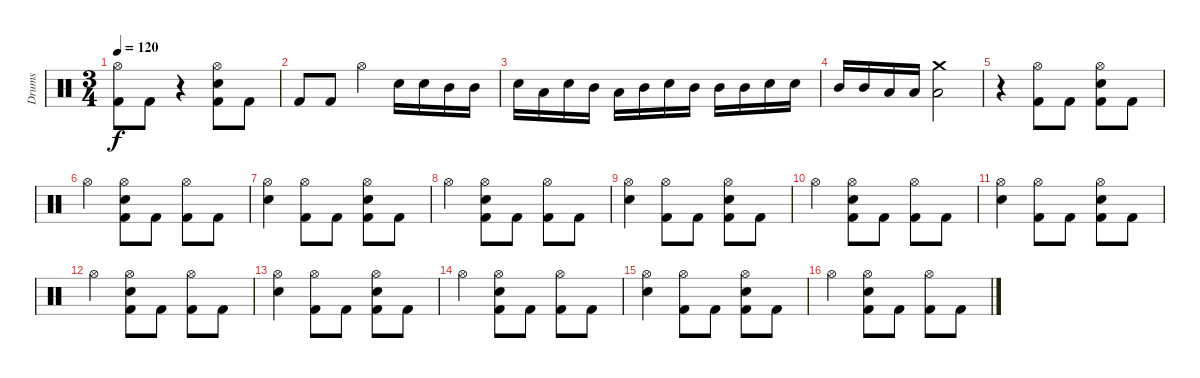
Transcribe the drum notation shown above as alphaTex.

\track ("Drums" "Drums") {instrument percussion}
\staff {score}
\articulation defaults
\ts (3 4)
\tempo 120
\clef neutral
\ks c
("Hi-Hat (open)" "Kick (hit) 2").8{dy f} "Kick (hit) 2".8 r.4 ("Electric Snare (hit)" "Hi-Hat (open)" "Kick (hit) 2").8 "Kick (hit) 2".8 |
"Kick (hit) 2".8 "Kick (hit) 2".8 "Hi-Hat (open)".4 "Electric Snare (hit)".16 "Electric Snare (hit)".16 "Mid Tom (hit)".16 "Mid Tom (hit)".16 |
"Electric Snare (hit)".16 "Low Tom (hit)".16 "Electric Snare (hit)".16 "Mid Tom (hit)".16 "Low Tom (hit)".16 "Mid Tom (hit)".16 "Electric Snare (hit)".16 "Mid Tom (hit)".16 "Mid Tom (hit)".16 "Mid Tom (hit)".16 "Electric Snare (hit)".16 "Electric Snare (hit)".16 |
"Mid Tom (hit)".16 "Mid Tom (hit)".16 "Low Tom (hit)".16 "Low Tom (hit)".16 ("Crash medium (hit)" "Low Floor Tom (hit)").2 |
r.4 ("Hi-Hat (open)" "Kick (hit) 2").8 "Kick (hit) 2".8 ("Electric Snare (hit)" "Hi-Hat (open)" "Kick (hit) 2").8 "Kick (hit) 2".8 |
"Hi-Hat (open)".4 ("Electric Snare (hit)" "Hi-Hat (open)" "Kick (hit) 2").8 "Kick (hit) 2".8 ("Hi-Hat (open)" "Kick (hit) 2").8 "Kick (hit) 2".8 |
("Electric Snare (hit)" "Hi-Hat (open)").4 ("Hi-Hat (open)" "Kick (hit) 2").8 "Kick (hit) 2".8 ("Electric Snare (hit)" "Hi-Hat (open)" "Kick (hit) 2").8 "Kick (hit) 2".8 |
"Hi-Hat (open)".4 ("Electric Snare (hit)" "Hi-Hat (open)" "Kick (hit) 2").8 "Kick (hit) 2".8 ("Hi-Hat (open)" "Kick (hit) 2").8 "Kick (hit) 2".8 |
("Electric Snare (hit)" "Hi-Hat (open)").4 ("Hi-Hat (open)" "Kick (hit) 2").8 "Kick (hit) 2".8 ("Electric Snare (hit)" "Hi-Hat (open)" "Kick (hit) 2").8 "Kick (hit) 2".8 |
"Hi-Hat (open)".4 ("Electric Snare (hit)" "Hi-Hat (open)" "Kick (hit) 2").8 "Kick (hit) 2".8 ("Hi-Hat (open)" "Kick (hit) 2").8 "Kick (hit) 2".8 |
("Electric Snare (hit)" "Hi-Hat (open)").4 ("Hi-Hat (open)" "Kick (hit) 2").8 "Kick (hit) 2".8 ("Electric Snare (hit)" "Hi-Hat (open)" "Kick (hit) 2").8 "Kick (hit) 2".8 |
"Hi-Hat (open)".4 ("Electric Snare (hit)" "Hi-Hat (open)" "Kick (hit) 2").8 "Kick (hit) 2".8 ("Hi-Hat (open)" "Kick (hit) 2").8 "Kick (hit) 2".8 |
("Electric Snare (hit)" "Hi-Hat (open)").4 ("Hi-Hat (open)" "Kick (hit) 2").8 "Kick (hit) 2".8 ("Electric Snare (hit)" "Hi-Hat (open)" "Kick (hit) 2").8 "Kick (hit) 2".8 |
"Hi-Hat (open)".4 ("Electric Snare (hit)" "Hi-Hat (open)" "Kick (hit) 2").8 "Kick (hit) 2".8 ("Hi-Hat (open)" "Kick (hit) 2").8 "Kick (hit) 2".8 |
("Electric Snare (hit)" "Hi-Hat (open)").4 ("Hi-Hat (open)" "Kick (hit) 2").8 "Kick (hit) 2".8 ("Electric Snare (hit)" "Hi-Hat (open)" "Kick (hit) 2").8 "Kick (hit) 2".8 |
"Hi-Hat (open)".4 ("Electric Snare (hit)" "Hi-Hat (open)" "Kick (hit) 2").8 "Kick (hit) 2".8 ("Hi-Hat (open)" "Kick (hit) 2").8 "Kick (hit) 2".8
